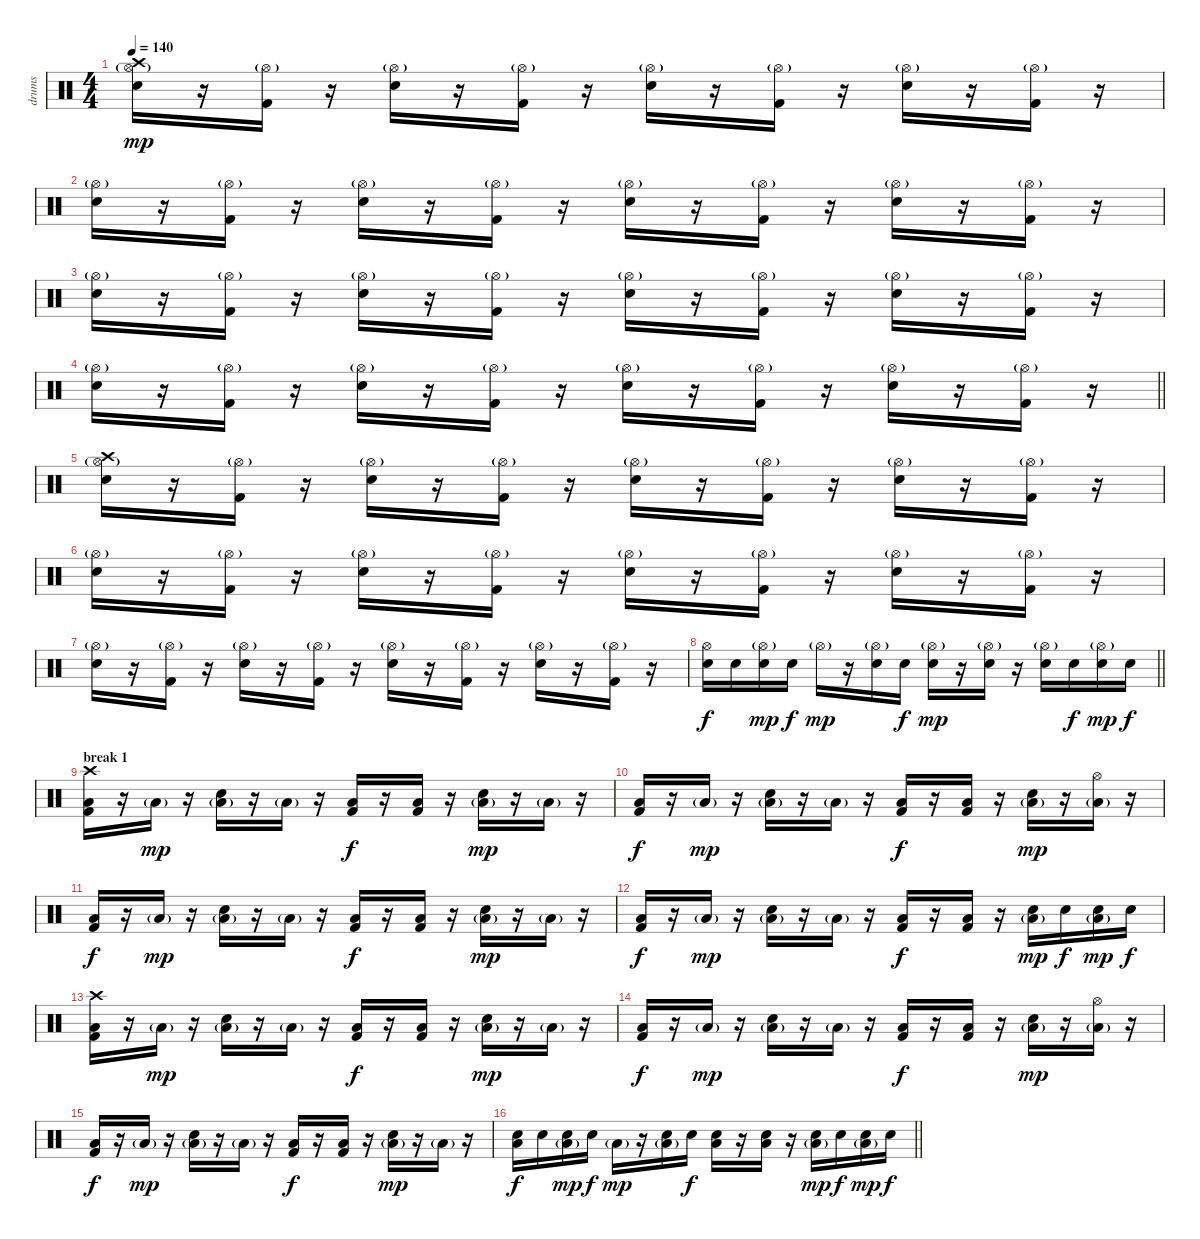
\track ("drums" "drums") {instrument percussion}
\staff {score}
\articulation defaults
\ts (4 4)
\tempo 140
\clef neutral
\ks c
("Electric Snare (hit)" "Hi-Hat (open)"{g} "Crash high (hit)").16{dy mp} r.16 ("Kick (hit) 2" "Hi-Hat (open)"{g}).16 r.16 ("Electric Snare (hit)" "Hi-Hat (open)"{g}).16 r.16 ("Kick (hit) 2" "Hi-Hat (open)"{g}).16 r.16 ("Electric Snare (hit)" "Hi-Hat (open)"{g}).16 r.16 ("Kick (hit) 2" "Hi-Hat (open)"{g}).16 r.16 ("Electric Snare (hit)" "Hi-Hat (open)"{g}).16 r.16 ("Kick (hit) 2" "Hi-Hat (open)"{g}).16 r.16 |
("Electric Snare (hit)" "Hi-Hat (open)"{g}).16 r.16 ("Kick (hit) 2" "Hi-Hat (open)"{g}).16 r.16 ("Electric Snare (hit)" "Hi-Hat (open)"{g}).16 r.16 ("Kick (hit) 2" "Hi-Hat (open)"{g}).16 r.16 ("Electric Snare (hit)" "Hi-Hat (open)"{g}).16 r.16 ("Kick (hit) 2" "Hi-Hat (open)"{g}).16 r.16 ("Electric Snare (hit)" "Hi-Hat (open)"{g}).16 r.16 ("Kick (hit) 2" "Hi-Hat (open)"{g}).16 r.16 |
("Electric Snare (hit)" "Hi-Hat (open)"{g}).16 r.16 ("Kick (hit) 2" "Hi-Hat (open)"{g}).16 r.16 ("Electric Snare (hit)" "Hi-Hat (open)"{g}).16 r.16 ("Kick (hit) 2" "Hi-Hat (open)"{g}).16 r.16 ("Electric Snare (hit)" "Hi-Hat (open)"{g}).16 r.16 ("Kick (hit) 2" "Hi-Hat (open)"{g}).16 r.16 ("Electric Snare (hit)" "Hi-Hat (open)"{g}).16 r.16 ("Kick (hit) 2" "Hi-Hat (open)"{g}).16 r.16 |
\barLineRight lightlight
("Electric Snare (hit)" "Hi-Hat (open)"{g}).16 r.16 ("Kick (hit) 2" "Hi-Hat (open)"{g}).16 r.16 ("Electric Snare (hit)" "Hi-Hat (open)"{g}).16 r.16 ("Kick (hit) 2" "Hi-Hat (open)"{g}).16 r.16 ("Electric Snare (hit)" "Hi-Hat (open)"{g}).16 r.16 ("Kick (hit) 2" "Hi-Hat (open)"{g}).16 r.16 ("Electric Snare (hit)" "Hi-Hat (open)"{g}).16 r.16 ("Kick (hit) 2" "Hi-Hat (open)"{g}).16 r.16 |
("Electric Snare (hit)" "Hi-Hat (open)"{g} "Crash high (hit)").16 r.16 ("Kick (hit) 2" "Hi-Hat (open)"{g}).16 r.16 ("Electric Snare (hit)" "Hi-Hat (open)"{g}).16 r.16 ("Kick (hit) 2" "Hi-Hat (open)"{g}).16 r.16 ("Electric Snare (hit)" "Hi-Hat (open)"{g}).16 r.16 ("Kick (hit) 2" "Hi-Hat (open)"{g}).16 r.16 ("Electric Snare (hit)" "Hi-Hat (open)"{g}).16 r.16 ("Kick (hit) 2" "Hi-Hat (open)"{g}).16 r.16 |
("Electric Snare (hit)" "Hi-Hat (open)"{g}).16 r.16 ("Kick (hit) 2" "Hi-Hat (open)"{g}).16 r.16 ("Electric Snare (hit)" "Hi-Hat (open)"{g}).16 r.16 ("Kick (hit) 2" "Hi-Hat (open)"{g}).16 r.16 ("Electric Snare (hit)" "Hi-Hat (open)"{g}).16 r.16 ("Kick (hit) 2" "Hi-Hat (open)"{g}).16 r.16 ("Electric Snare (hit)" "Hi-Hat (open)"{g}).16 r.16 ("Kick (hit) 2" "Hi-Hat (open)"{g}).16 r.16 |
("Electric Snare (hit)" "Hi-Hat (open)"{g}).16 r.16 ("Kick (hit) 2" "Hi-Hat (open)"{g}).16 r.16 ("Electric Snare (hit)" "Hi-Hat (open)"{g}).16 r.16 ("Kick (hit) 2" "Hi-Hat (open)"{g}).16 r.16 ("Electric Snare (hit)" "Hi-Hat (open)"{g}).16 r.16 ("Kick (hit) 2" "Hi-Hat (open)"{g}).16 r.16 ("Electric Snare (hit)" "Hi-Hat (open)"{g}).16 r.16 ("Kick (hit) 2" "Hi-Hat (open)"{g}).16 r.16 |
\barLineRight lightlight
("Electric Snare (hit)" "Hi-Hat (open)").16{dy f} "Electric Snare (hit)".16 ("Electric Snare (hit)" "Hi-Hat (open)"{g}).16{dy mp} "Electric Snare (hit)".16{dy f} "Hi-Hat (open)"{g}.16{dy mp} r.16 ("Electric Snare (hit)" "Hi-Hat (open)"{g}).16 "Electric Snare (hit)".16{dy f} ("Electric Snare (hit)" "Hi-Hat (open)"{g}).16{dy mp} r.16 ("Electric Snare (hit)" "Hi-Hat (open)"{g}).16 r.16 ("Electric Snare (hit)" "Hi-Hat (open)"{g}).16 "Electric Snare (hit)".16{dy f} ("Electric Snare (hit)" "Hi-Hat (open)"{g}).16{dy mp} "Electric Snare (hit)".16{dy f} |
\section ("" "break 1")
("Kick (hit) 2" "Low Floor Tom (hit)" "Crash high (hit)").16 r.16 "Low Floor Tom (hit)"{g}.16{dy mp} r.16 ("Electric Snare (hit)" "Low Floor Tom (hit)"{g}).16 r.16 "Low Floor Tom (hit)"{g}.16 r.16 ("Kick (hit) 2" "Low Floor Tom (hit)").16{dy f} r.16 ("Kick (hit) 2" "Low Floor Tom (hit)").16 r.16 ("Electric Snare (hit)" "Low Floor Tom (hit)"{g}).16{dy mp} r.16 "Low Floor Tom (hit)"{g}.16 r.16 |
("Kick (hit) 2" "Low Floor Tom (hit)").16{dy f} r.16 "Low Floor Tom (hit)"{g}.16{dy mp} r.16 ("Electric Snare (hit)" "Low Floor Tom (hit)"{g}).16 r.16 "Low Floor Tom (hit)"{g}.16 r.16 ("Kick (hit) 2" "Low Floor Tom (hit)").16{dy f} r.16 ("Kick (hit) 2" "Low Floor Tom (hit)").16 r.16 ("Electric Snare (hit)" "Low Floor Tom (hit)"{g}).16{dy mp} r.16 ("Hi-Hat (open)" "Low Floor Tom (hit)"{g}).16 r.16 |
("Kick (hit) 2" "Low Floor Tom (hit)").16{dy f} r.16 "Low Floor Tom (hit)"{g}.16{dy mp} r.16 ("Electric Snare (hit)" "Low Floor Tom (hit)"{g}).16 r.16 "Low Floor Tom (hit)"{g}.16 r.16 ("Kick (hit) 2" "Low Floor Tom (hit)").16{dy f} r.16 ("Kick (hit) 2" "Low Floor Tom (hit)").16 r.16 ("Electric Snare (hit)" "Low Floor Tom (hit)"{g}).16{dy mp} r.16 "Low Floor Tom (hit)"{g}.16 r.16 |
("Kick (hit) 2" "Low Floor Tom (hit)").16{dy f} r.16 "Low Floor Tom (hit)"{g}.16{dy mp} r.16 ("Electric Snare (hit)" "Low Floor Tom (hit)"{g}).16 r.16 "Low Floor Tom (hit)"{g}.16 r.16 ("Kick (hit) 2" "Low Floor Tom (hit)").16{dy f} r.16 ("Kick (hit) 2" "Low Floor Tom (hit)").16 r.16 ("Electric Snare (hit)" "Low Floor Tom (hit)"{g}).16{dy mp} "Electric Snare (hit)".16{dy f} ("Electric Snare (hit)" "Low Floor Tom (hit)"{g}).16{dy mp} "Electric Snare (hit)".16{dy f} |
("Kick (hit) 2" "Low Floor Tom (hit)" "Crash high (hit)").16 r.16 "Low Floor Tom (hit)"{g}.16{dy mp} r.16 ("Electric Snare (hit)" "Low Floor Tom (hit)"{g}).16 r.16 "Low Floor Tom (hit)"{g}.16 r.16 ("Kick (hit) 2" "Low Floor Tom (hit)").16{dy f} r.16 ("Kick (hit) 2" "Low Floor Tom (hit)").16 r.16 ("Electric Snare (hit)" "Low Floor Tom (hit)"{g}).16{dy mp} r.16 "Low Floor Tom (hit)"{g}.16 r.16 |
("Kick (hit) 2" "Low Floor Tom (hit)").16{dy f} r.16 "Low Floor Tom (hit)"{g}.16{dy mp} r.16 ("Electric Snare (hit)" "Low Floor Tom (hit)"{g}).16 r.16 "Low Floor Tom (hit)"{g}.16 r.16 ("Kick (hit) 2" "Low Floor Tom (hit)").16{dy f} r.16 ("Kick (hit) 2" "Low Floor Tom (hit)").16 r.16 ("Electric Snare (hit)" "Low Floor Tom (hit)"{g}).16{dy mp} r.16 ("Hi-Hat (open)" "Low Floor Tom (hit)"{g}).16 r.16 |
("Kick (hit) 2" "Low Floor Tom (hit)").16{dy f} r.16 "Low Floor Tom (hit)"{g}.16{dy mp} r.16 ("Electric Snare (hit)" "Low Floor Tom (hit)"{g}).16 r.16 "Low Floor Tom (hit)"{g}.16 r.16 ("Kick (hit) 2" "Low Floor Tom (hit)").16{dy f} r.16 ("Kick (hit) 2" "Low Floor Tom (hit)").16 r.16 ("Electric Snare (hit)" "Low Floor Tom (hit)"{g}).16{dy mp} r.16 "Low Floor Tom (hit)"{g}.16 r.16 |
\barLineRight lightlight
("Electric Snare (hit)" "Low Floor Tom (hit)").16{dy f} "Electric Snare (hit)".16 ("Electric Snare (hit)" "Low Floor Tom (hit)"{g}).16{dy mp} "Electric Snare (hit)".16{dy f} "Low Floor Tom (hit)"{g}.16{dy mp} r.16 ("Electric Snare (hit)" "Low Floor Tom (hit)"{g}).16 "Electric Snare (hit)".16{dy f} ("Electric Snare (hit)" "Low Floor Tom (hit)").16 r.16 ("Electric Snare (hit)" "Low Floor Tom (hit)").16 r.16 ("Electric Snare (hit)" "Low Floor Tom (hit)"{g}).16{dy mp} "Electric Snare (hit)".16{dy f} ("Electric Snare (hit)" "Low Floor Tom (hit)"{g}).16{dy mp} "Electric Snare (hit)".16{dy f}
